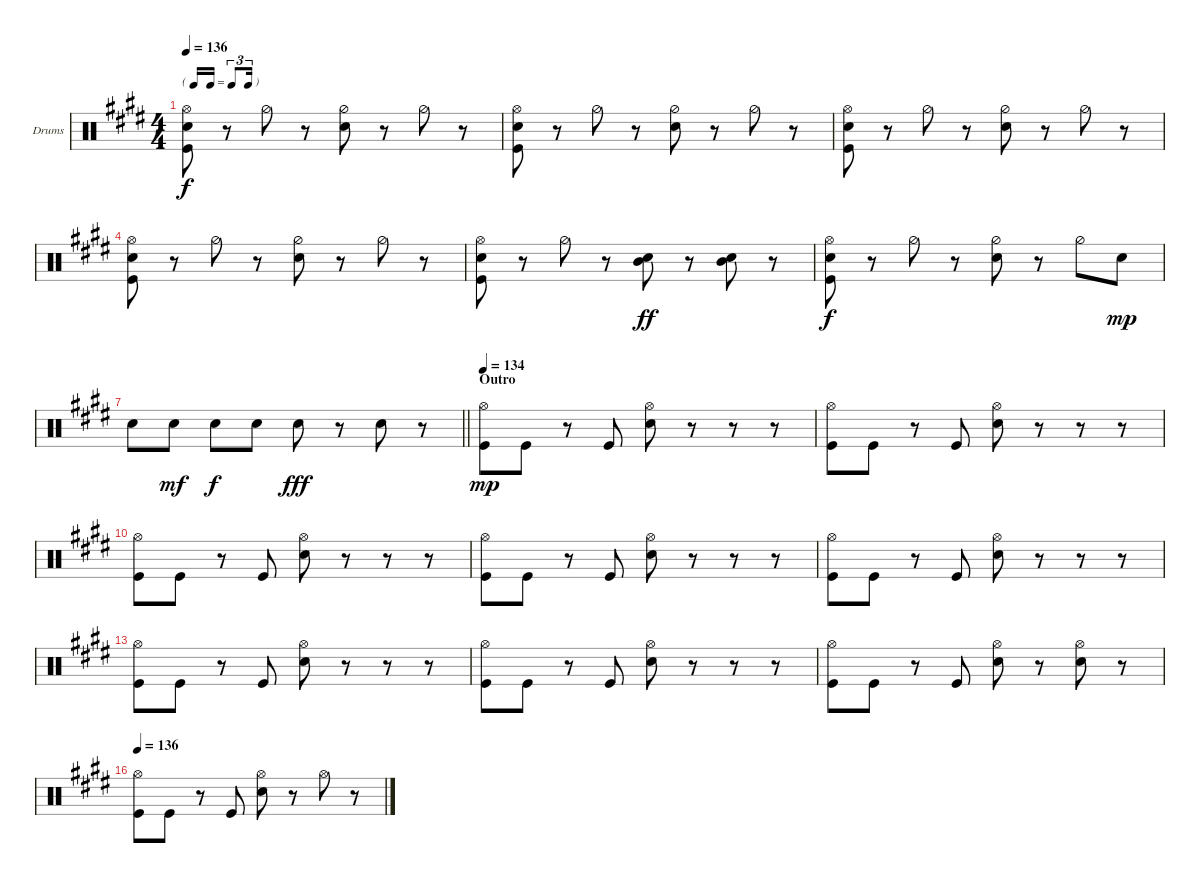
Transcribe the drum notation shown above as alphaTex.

\bracketExtendMode nobrackets
\firstSystemTrackNameOrientation horizontal
\otherSystemsTrackNameOrientation horizontal
\defaultBarNumberDisplay FirstOfSystem
\track ("Drumkit" "Drums") {instrument percussion}
\staff {score}
\articulation defaults
\ts (4 4)
\tf triplet16th
\tempo 136
\clef neutral
\ks c#minor
("Hi-Hat (open)" "Snare (hit) 2" "Kick (hit)").8{dy f} r.8 "Hi-Hat (half)".8 r.8 ("Snare (hit) 2" "Hi-Hat (half)").8 r.8 "Hi-Hat (half)".8 r.8 |
("Hi-Hat (open)" "Snare (hit) 2" "Kick (hit)").8 r.8 "Hi-Hat (half)".8 r.8 ("Snare (hit) 2" "Hi-Hat (half)").8 r.8 "Hi-Hat (half)".8 r.8 |
("Hi-Hat (open)" "Snare (hit) 2" "Kick (hit)").8 r.8 "Hi-Hat (half)".8 r.8 ("Snare (hit) 2" "Hi-Hat (half)").8 r.8 "Hi-Hat (half)".8 r.8 |
\ks e
("Hi-Hat (open)" "Snare (hit) 2" "Kick (hit)").8 r.8 "Hi-Hat (half)".8 r.8 ("Snare (hit) 2" "Hi-Hat (half)").8 r.8 "Hi-Hat (half)".8 r.8 |
\ks c#minor
("Hi-Hat (open)" "Snare (hit) 2" "Kick (hit)").8 r.8 "Hi-Hat (half)".8 r.8 ("Snare (hit) 2" "Mid Tom (hit)").8{dy ff} r.8 ("Snare (hit) 2" "Mid Tom (hit)").8 r.8 |
("Hi-Hat (open)" "Snare (hit) 2" "Kick (hit)").8{dy f} r.8 "Hi-Hat (half)".8 r.8 ("Snare (hit) 2" "Hi-Hat (half)").8 r.8 "Hi-Hat (half)".8 "Snare (hit) 2".8{dy mp} |
\barLineRight lightlight "Snare (hit) 2".8 "Snare (hit) 2".8{dy mf} "Snare (hit) 2".8{dy f} "Snare (hit) 2".8 "Snare (hit) 2".8{dy fff}
r.8 "Snare (hit) 2".8 r.8 |
\section ("" "Outro")
\tempo 134
\ks e
("Kick (hit)" "Hi-Hat (open)").8{dy mp} "Kick (hit)".8 r.8 "Kick (hit)".8 ("Snare (hit) 2" "Hi-Hat (open)").8 r.8 r.8 r.8 |
\ks c#minor
("Kick (hit)" "Hi-Hat (open)").8 "Kick (hit)".8 r.8 "Kick (hit)".8 ("Snare (hit) 2" "Hi-Hat (open)").8 r.8 r.8 r.8 |
("Kick (hit)" "Hi-Hat (open)").8 "Kick (hit)".8 r.8 "Kick (hit)".8 ("Snare (hit) 2" "Hi-Hat (open)").8 r.8 r.8 r.8 |
("Kick (hit)" "Hi-Hat (open)").8 "Kick (hit)".8 r.8 "Kick (hit)".8 ("Snare (hit) 2" "Hi-Hat (open)").8 r.8 r.8 r.8 |
\ks e
("Kick (hit)" "Hi-Hat (open)").8 "Kick (hit)".8 r.8 "Kick (hit)".8 ("Snare (hit) 2" "Hi-Hat (open)").8 r.8 r.8 r.8 |
\ks c#minor
("Kick (hit)" "Hi-Hat (open)").8 "Kick (hit)".8 r.8 "Kick (hit)".8 ("Snare (hit) 2" "Hi-Hat (open)").8 r.8 r.8 r.8 |
("Kick (hit)" "Hi-Hat (open)").8 "Kick (hit)".8 r.8 "Kick (hit)".8 ("Snare (hit) 2" "Hi-Hat (open)").8 r.8 r.8 r.8 |
("Kick (hit)" "Hi-Hat (open)").8 "Kick (hit)".8 r.8 "Kick (hit)".8 ("Snare (hit) 2" "Hi-Hat (open)").8 r.8 ("Hi-Hat (open)" "Snare (hit) 2").8 r.8 |
\tempo 136
\ks e
("Kick (hit)" "Hi-Hat (open)").8 "Kick (hit)".8 r.8 "Kick (hit)".8 ("Snare (hit) 2" "Hi-Hat (open)").8 r.8 "Hi-Hat (open)".8 r.8
